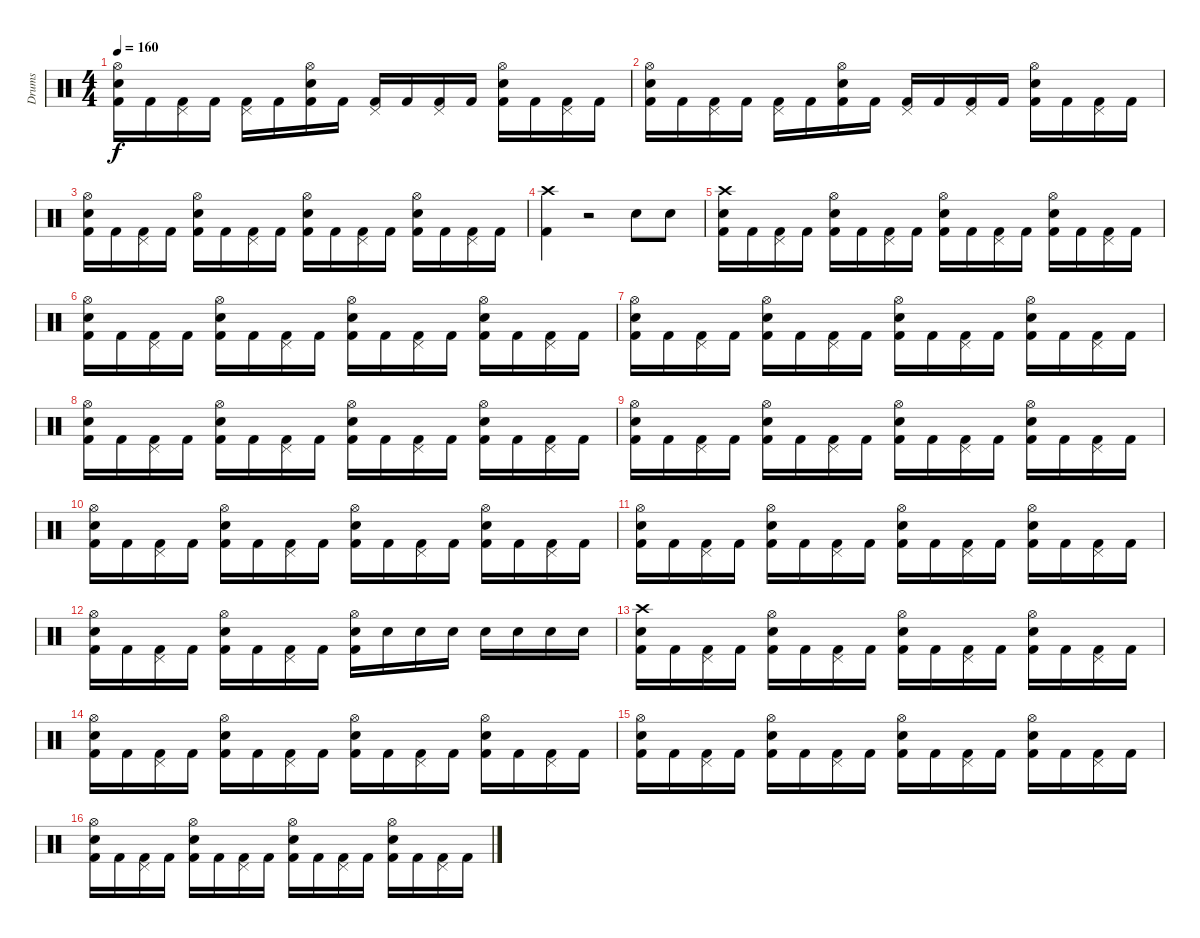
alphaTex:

\track ("Drums" "Drums") {instrument percussion}
\staff {score}
\articulation defaults
\ts (4 4)
\tempo 160
\clef neutral
\ks c
("Hi-Hat (open)" "Electric Snare (hit)" "Kick (hit) 2").16{dy f} "Kick (hit) 2".16 ("Pedal Hi-Hat (hit)" "Kick (hit) 2").16 "Kick (hit) 2".16 ("Pedal Hi-Hat (hit)" "Kick (hit) 2").16 "Kick (hit) 2".16 ("Hi-Hat (open)" "Snare (hit) 2" "Kick (hit) 2").16 "Kick (hit) 2".16 ("Pedal Hi-Hat (hit)" "Kick (hit) 2").16 "Kick (hit) 2".16 ("Pedal Hi-Hat (hit)" "Kick (hit) 2").16 "Kick (hit) 2".16 ("Hi-Hat (open)" "Electric Snare (hit)" "Kick (hit) 2").16 "Kick (hit) 2".16 ("Pedal Hi-Hat (hit)" "Kick (hit) 2").16 "Kick (hit) 2".16 |
("Hi-Hat (open)" "Electric Snare (hit)" "Kick (hit) 2").16 "Kick (hit) 2".16 ("Pedal Hi-Hat (hit)" "Kick (hit) 2").16 "Kick (hit) 2".16 ("Pedal Hi-Hat (hit)" "Kick (hit) 2").16 "Kick (hit) 2".16 ("Hi-Hat (open)" "Snare (hit) 2" "Kick (hit) 2").16 "Kick (hit) 2".16 ("Pedal Hi-Hat (hit)" "Kick (hit) 2").16 "Kick (hit) 2".16 ("Pedal Hi-Hat (hit)" "Kick (hit) 2").16 "Kick (hit) 2".16 ("Hi-Hat (open)" "Electric Snare (hit)" "Kick (hit) 2").16 "Kick (hit) 2".16 ("Pedal Hi-Hat (hit)" "Kick (hit) 2").16 "Kick (hit) 2".16 |
("Hi-Hat (open)" "Electric Snare (hit)" "Kick (hit) 2").16 "Kick (hit) 2".16 ("Pedal Hi-Hat (hit)" "Kick (hit) 2").16 "Kick (hit) 2".16 ("Hi-Hat (open)" "Snare (hit) 2" "Kick (hit) 2").16 "Kick (hit) 2".16 ("Pedal Hi-Hat (hit)" "Kick (hit) 2").16 "Kick (hit) 2".16 ("Hi-Hat (open)" "Electric Snare (hit)" "Kick (hit) 2").16 "Kick (hit) 2".16 ("Pedal Hi-Hat (hit)" "Kick (hit) 2").16 "Kick (hit) 2".16 ("Hi-Hat (open)" "Snare (hit) 2" "Kick (hit) 2").16 "Kick (hit) 2".16 ("Pedal Hi-Hat (hit)" "Kick (hit) 2").16 "Kick (hit) 2".16 |
("Crash high (hit)" "Kick (hit) 2").4 r.2 "Snare (hit) 2".8 "Snare (hit) 2".8 |
("Crash high (hit)" "Electric Snare (hit)" "Kick (hit) 2").16 "Kick (hit) 2".16 ("Pedal Hi-Hat (hit)" "Kick (hit) 2").16 "Kick (hit) 2".16 ("Hi-Hat (open)" "Snare (hit) 2" "Kick (hit) 2").16 "Kick (hit) 2".16 ("Pedal Hi-Hat (hit)" "Kick (hit) 2").16 "Kick (hit) 2".16 ("Hi-Hat (open)" "Electric Snare (hit)" "Kick (hit) 2").16 "Kick (hit) 2".16 ("Pedal Hi-Hat (hit)" "Kick (hit) 2").16 "Kick (hit) 2".16 ("Hi-Hat (open)" "Snare (hit) 2" "Kick (hit) 2").16 "Kick (hit) 2".16 ("Pedal Hi-Hat (hit)" "Kick (hit) 2").16 "Kick (hit) 2".16 |
("Hi-Hat (open)" "Electric Snare (hit)" "Kick (hit) 2").16 "Kick (hit) 2".16 ("Pedal Hi-Hat (hit)" "Kick (hit) 2").16 "Kick (hit) 2".16 ("Hi-Hat (open)" "Snare (hit) 2" "Kick (hit) 2").16 "Kick (hit) 2".16 ("Pedal Hi-Hat (hit)" "Kick (hit) 2").16 "Kick (hit) 2".16 ("Hi-Hat (open)" "Electric Snare (hit)" "Kick (hit) 2").16 "Kick (hit) 2".16 ("Pedal Hi-Hat (hit)" "Kick (hit) 2").16 "Kick (hit) 2".16 ("Hi-Hat (open)" "Snare (hit) 2" "Kick (hit) 2").16 "Kick (hit) 2".16 ("Pedal Hi-Hat (hit)" "Kick (hit) 2").16 "Kick (hit) 2".16 |
("Hi-Hat (open)" "Electric Snare (hit)" "Kick (hit) 2").16 "Kick (hit) 2".16 ("Pedal Hi-Hat (hit)" "Kick (hit) 2").16 "Kick (hit) 2".16 ("Hi-Hat (open)" "Snare (hit) 2" "Kick (hit) 2").16 "Kick (hit) 2".16 ("Pedal Hi-Hat (hit)" "Kick (hit) 2").16 "Kick (hit) 2".16 ("Hi-Hat (open)" "Electric Snare (hit)" "Kick (hit) 2").16 "Kick (hit) 2".16 ("Pedal Hi-Hat (hit)" "Kick (hit) 2").16 "Kick (hit) 2".16 ("Hi-Hat (open)" "Snare (hit) 2" "Kick (hit) 2").16 "Kick (hit) 2".16 ("Pedal Hi-Hat (hit)" "Kick (hit) 2").16 "Kick (hit) 2".16 |
("Hi-Hat (open)" "Electric Snare (hit)" "Kick (hit) 2").16 "Kick (hit) 2".16 ("Pedal Hi-Hat (hit)" "Kick (hit) 2").16 "Kick (hit) 2".16 ("Hi-Hat (open)" "Snare (hit) 2" "Kick (hit) 2").16 "Kick (hit) 2".16 ("Pedal Hi-Hat (hit)" "Kick (hit) 2").16 "Kick (hit) 2".16 ("Hi-Hat (open)" "Electric Snare (hit)" "Kick (hit) 2").16 "Kick (hit) 2".16 ("Pedal Hi-Hat (hit)" "Kick (hit) 2").16 "Kick (hit) 2".16 ("Hi-Hat (open)" "Snare (hit) 2" "Kick (hit) 2").16 "Kick (hit) 2".16 ("Pedal Hi-Hat (hit)" "Kick (hit) 2").16 "Kick (hit) 2".16 |
("Hi-Hat (open)" "Electric Snare (hit)" "Kick (hit) 2").16 "Kick (hit) 2".16 ("Pedal Hi-Hat (hit)" "Kick (hit) 2").16 "Kick (hit) 2".16 ("Hi-Hat (open)" "Snare (hit) 2" "Kick (hit) 2").16 "Kick (hit) 2".16 ("Pedal Hi-Hat (hit)" "Kick (hit) 2").16 "Kick (hit) 2".16 ("Hi-Hat (open)" "Electric Snare (hit)" "Kick (hit) 2").16 "Kick (hit) 2".16 ("Pedal Hi-Hat (hit)" "Kick (hit) 2").16 "Kick (hit) 2".16 ("Hi-Hat (open)" "Snare (hit) 2" "Kick (hit) 2").16 "Kick (hit) 2".16 ("Pedal Hi-Hat (hit)" "Kick (hit) 2").16 "Kick (hit) 2".16 |
("Hi-Hat (open)" "Electric Snare (hit)" "Kick (hit) 2").16 "Kick (hit) 2".16 ("Pedal Hi-Hat (hit)" "Kick (hit) 2").16 "Kick (hit) 2".16 ("Hi-Hat (open)" "Snare (hit) 2" "Kick (hit) 2").16 "Kick (hit) 2".16 ("Pedal Hi-Hat (hit)" "Kick (hit) 2").16 "Kick (hit) 2".16 ("Hi-Hat (open)" "Electric Snare (hit)" "Kick (hit) 2").16 "Kick (hit) 2".16 ("Pedal Hi-Hat (hit)" "Kick (hit) 2").16 "Kick (hit) 2".16 ("Hi-Hat (open)" "Snare (hit) 2" "Kick (hit) 2").16 "Kick (hit) 2".16 ("Pedal Hi-Hat (hit)" "Kick (hit) 2").16 "Kick (hit) 2".16 |
("Hi-Hat (open)" "Electric Snare (hit)" "Kick (hit) 2").16 "Kick (hit) 2".16 ("Pedal Hi-Hat (hit)" "Kick (hit) 2").16 "Kick (hit) 2".16 ("Hi-Hat (open)" "Snare (hit) 2" "Kick (hit) 2").16 "Kick (hit) 2".16 ("Pedal Hi-Hat (hit)" "Kick (hit) 2").16 "Kick (hit) 2".16 ("Hi-Hat (open)" "Electric Snare (hit)" "Kick (hit) 2").16 "Kick (hit) 2".16 ("Pedal Hi-Hat (hit)" "Kick (hit) 2").16 "Kick (hit) 2".16 ("Hi-Hat (open)" "Snare (hit) 2" "Kick (hit) 2").16 "Kick (hit) 2".16 ("Pedal Hi-Hat (hit)" "Kick (hit) 2").16 "Kick (hit) 2".16 |
("Hi-Hat (open)" "Electric Snare (hit)" "Kick (hit) 2").16 "Kick (hit) 2".16 ("Pedal Hi-Hat (hit)" "Kick (hit) 2").16 "Kick (hit) 2".16 ("Hi-Hat (open)" "Snare (hit) 2" "Kick (hit) 2").16 "Kick (hit) 2".16 ("Pedal Hi-Hat (hit)" "Kick (hit) 2").16 "Kick (hit) 2".16 ("Hi-Hat (open)" "Snare (hit) 2" "Kick (hit) 2").16 "Snare (hit) 2".16 "Snare (hit) 2".16 "Snare (hit) 2".16 "Snare (hit) 2".16 "Snare (hit) 2".16 "Snare (hit) 2".16 "Snare (hit) 2".16 |
("Crash high (hit)" "Electric Snare (hit)" "Kick (hit) 2").16 "Kick (hit) 2".16 ("Pedal Hi-Hat (hit)" "Kick (hit) 2").16 "Kick (hit) 2".16 ("Hi-Hat (open)" "Snare (hit) 2" "Kick (hit) 2").16 "Kick (hit) 2".16 ("Pedal Hi-Hat (hit)" "Kick (hit) 2").16 "Kick (hit) 2".16 ("Hi-Hat (open)" "Electric Snare (hit)" "Kick (hit) 2").16 "Kick (hit) 2".16 ("Pedal Hi-Hat (hit)" "Kick (hit) 2").16 "Kick (hit) 2".16 ("Hi-Hat (open)" "Snare (hit) 2" "Kick (hit) 2").16 "Kick (hit) 2".16 ("Pedal Hi-Hat (hit)" "Kick (hit) 2").16 "Kick (hit) 2".16 |
("Hi-Hat (open)" "Electric Snare (hit)" "Kick (hit) 2").16 "Kick (hit) 2".16 ("Pedal Hi-Hat (hit)" "Kick (hit) 2").16 "Kick (hit) 2".16 ("Hi-Hat (open)" "Snare (hit) 2" "Kick (hit) 2").16 "Kick (hit) 2".16 ("Pedal Hi-Hat (hit)" "Kick (hit) 2").16 "Kick (hit) 2".16 ("Hi-Hat (open)" "Electric Snare (hit)" "Kick (hit) 2").16 "Kick (hit) 2".16 ("Pedal Hi-Hat (hit)" "Kick (hit) 2").16 "Kick (hit) 2".16 ("Hi-Hat (open)" "Snare (hit) 2" "Kick (hit) 2").16 "Kick (hit) 2".16 ("Pedal Hi-Hat (hit)" "Kick (hit) 2").16 "Kick (hit) 2".16 |
("Hi-Hat (open)" "Electric Snare (hit)" "Kick (hit) 2").16 "Kick (hit) 2".16 ("Pedal Hi-Hat (hit)" "Kick (hit) 2").16 "Kick (hit) 2".16 ("Hi-Hat (open)" "Snare (hit) 2" "Kick (hit) 2").16 "Kick (hit) 2".16 ("Pedal Hi-Hat (hit)" "Kick (hit) 2").16 "Kick (hit) 2".16 ("Hi-Hat (open)" "Electric Snare (hit)" "Kick (hit) 2").16 "Kick (hit) 2".16 ("Pedal Hi-Hat (hit)" "Kick (hit) 2").16 "Kick (hit) 2".16 ("Hi-Hat (open)" "Snare (hit) 2" "Kick (hit) 2").16 "Kick (hit) 2".16 ("Pedal Hi-Hat (hit)" "Kick (hit) 2").16 "Kick (hit) 2".16 |
("Hi-Hat (open)" "Electric Snare (hit)" "Kick (hit) 2").16 "Kick (hit) 2".16 ("Pedal Hi-Hat (hit)" "Kick (hit) 2").16 "Kick (hit) 2".16 ("Hi-Hat (open)" "Snare (hit) 2" "Kick (hit) 2").16 "Kick (hit) 2".16 ("Pedal Hi-Hat (hit)" "Kick (hit) 2").16 "Kick (hit) 2".16 ("Hi-Hat (open)" "Electric Snare (hit)" "Kick (hit) 2").16 "Kick (hit) 2".16 ("Pedal Hi-Hat (hit)" "Kick (hit) 2").16 "Kick (hit) 2".16 ("Hi-Hat (open)" "Snare (hit) 2" "Kick (hit) 2").16 "Kick (hit) 2".16 ("Pedal Hi-Hat (hit)" "Kick (hit) 2").16 "Kick (hit) 2".16
